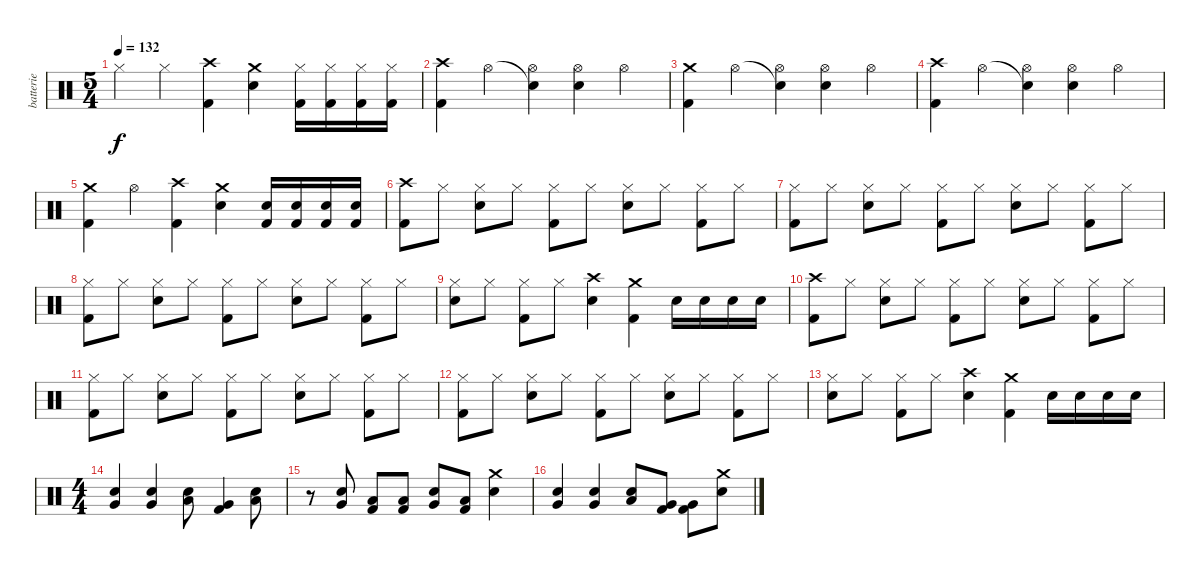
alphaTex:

\track ("batterie" "batterie") {instrument percussion}
\staff {score}
\articulation defaults
\ts (5 4)
\tempo 132
\clef neutral
\ks c "Hi-Hat (closed)".4{dy f} "Hi-Hat (closed)".4
("Crash high (hit)" "Kick (hit) 2").4 ("Crash medium (hit)" "Electric Snare (hit)").4 ("Kick (hit) 2" "Hi-Hat (closed)").16 ("Kick (hit) 2" "Hi-Hat (closed)").16 ("Kick (hit) 2" "Hi-Hat (closed)").16 ("Kick (hit) 2" "Hi-Hat (closed)").16 |
("Crash high (hit)" "Kick (hit) 2").4 "Hi-Hat (open)".4 ("Snare (hit)"{t} "Hi-Hat (open)").4 ("Electric Snare (hit)" "Hi-Hat (open)").4 "Hi-Hat (open)".4 |
("Crash medium (hit)" "Kick (hit) 2").4 "Hi-Hat (open)".4 ("Snare (hit)"{t} "Hi-Hat (open)").4 ("Electric Snare (hit)" "Hi-Hat (open)").4 "Hi-Hat (open)".4 |
("Crash high (hit)" "Kick (hit) 2").4 "Hi-Hat (open)".4 ("Snare (hit)"{t} "Hi-Hat (open)").4 ("Electric Snare (hit)" "Hi-Hat (open)").4 "Hi-Hat (open)".4 |
("Crash medium (hit)" "Kick (hit) 2").4 "Hi-Hat (open)".4 ("Crash high (hit)" "Kick (hit) 2").4 ("Crash medium (hit)" "Electric Snare (hit)").4 ("Electric Snare (hit)" "Kick (hit) 2").16 ("Electric Snare (hit)" "Kick (hit) 2").16 ("Electric Snare (hit)" "Kick (hit) 2").16 ("Electric Snare (hit)" "Kick (hit) 2").16 |
("Crash high (hit)" "Kick (hit) 2").8 "Hi-Hat (closed)".8 ("Electric Snare (hit)" "Hi-Hat (closed)").8 "Hi-Hat (closed)".8 ("Kick (hit) 2" "Hi-Hat (closed)").8 "Hi-Hat (closed)".8 ("Electric Snare (hit)" "Hi-Hat (closed)").8 "Hi-Hat (closed)".8 ("Kick (hit) 2" "Hi-Hat (closed)").8 "Hi-Hat (closed)".8 |
("Kick (hit) 2" "Hi-Hat (closed)").8 "Hi-Hat (closed)".8 ("Electric Snare (hit)" "Hi-Hat (closed)").8 "Hi-Hat (closed)".8 ("Kick (hit) 2" "Hi-Hat (closed)").8 "Hi-Hat (closed)".8 ("Electric Snare (hit)" "Hi-Hat (closed)").8 "Hi-Hat (closed)".8 ("Kick (hit) 2" "Hi-Hat (closed)").8 "Hi-Hat (closed)".8 |
("Kick (hit) 2" "Hi-Hat (closed)").8 "Hi-Hat (closed)".8 ("Electric Snare (hit)" "Hi-Hat (closed)").8 "Hi-Hat (closed)".8 ("Kick (hit) 2" "Hi-Hat (closed)").8 "Hi-Hat (closed)".8 ("Electric Snare (hit)" "Hi-Hat (closed)").8 "Hi-Hat (closed)".8 ("Kick (hit) 2" "Hi-Hat (closed)").8 "Hi-Hat (closed)".8 |
("Electric Snare (hit)" "Hi-Hat (closed)").8 "Hi-Hat (closed)".8 ("Kick (hit) 2" "Hi-Hat (closed)").8 "Hi-Hat (closed)".8 ("Crash high (hit)" "Electric Snare (hit)").4 ("Crash medium (hit)" "Kick (hit) 2").4 "Electric Snare (hit)".16 "Electric Snare (hit)".16 "Electric Snare (hit)".16 "Electric Snare (hit)".16 |
("Crash high (hit)" "Kick (hit) 2").8 "Hi-Hat (closed)".8 ("Electric Snare (hit)" "Hi-Hat (closed)").8 "Hi-Hat (closed)".8 ("Kick (hit) 2" "Hi-Hat (closed)").8 "Hi-Hat (closed)".8 ("Electric Snare (hit)" "Hi-Hat (closed)").8 "Hi-Hat (closed)".8 ("Kick (hit) 2" "Hi-Hat (closed)").8 "Hi-Hat (closed)".8 |
("Kick (hit) 2" "Hi-Hat (closed)").8 "Hi-Hat (closed)".8 ("Electric Snare (hit)" "Hi-Hat (closed)").8 "Hi-Hat (closed)".8 ("Kick (hit) 2" "Hi-Hat (closed)").8 "Hi-Hat (closed)".8 ("Electric Snare (hit)" "Hi-Hat (closed)").8 "Hi-Hat (closed)".8 ("Kick (hit) 2" "Hi-Hat (closed)").8 "Hi-Hat (closed)".8 |
("Kick (hit) 2" "Hi-Hat (closed)").8 "Hi-Hat (closed)".8 ("Electric Snare (hit)" "Hi-Hat (closed)").8 "Hi-Hat (closed)".8 ("Kick (hit) 2" "Hi-Hat (closed)").8 "Hi-Hat (closed)".8 ("Electric Snare (hit)" "Hi-Hat (closed)").8 "Hi-Hat (closed)".8 ("Kick (hit) 2" "Hi-Hat (closed)").8 "Hi-Hat (closed)".8 |
("Electric Snare (hit)" "Hi-Hat (closed)").8 "Hi-Hat (closed)".8 ("Kick (hit) 2" "Hi-Hat (closed)").8 "Hi-Hat (closed)".8 ("Crash high (hit)" "Electric Snare (hit)").4 ("Crash medium (hit)" "Kick (hit) 2").4 "Electric Snare (hit)".16 "Electric Snare (hit)".16 "Electric Snare (hit)".16 "Electric Snare (hit)".16 |
\ts (4 4)
("Very Low Tom (hit)" "Electric Snare (hit)").4 ("Very Low Tom (hit)" "Electric Snare (hit)").4 ("Low Tom (hit)" "Electric Snare (hit)").8 ("Very Low Tom (hit)" "Kick (hit) 2").4 ("Low Tom (hit)" "Electric Snare (hit)").8 |
r.8 ("Very Low Tom (hit)" "Electric Snare (hit)").8 ("Low Tom (hit)" "Kick (hit) 2").8 ("Low Tom (hit)" "Kick (hit) 2").8 ("Very Low Tom (hit)" "Electric Snare (hit)").8 ("Low Tom (hit)" "Kick (hit) 2").8 ("Crash medium (hit)" "Electric Snare (hit)").4 |
("Very Low Tom (hit)" "Electric Snare (hit)").4 ("Very Low Tom (hit)" "Electric Snare (hit)").4 ("Low Tom (hit)" "Electric Snare (hit)").8 ("Very Low Tom (hit)" "Kick (hit) 2").8 ("Very Low Tom (hit)" "Kick (hit) 2").8 ("Crash medium (hit)" "Electric Snare (hit)").8
